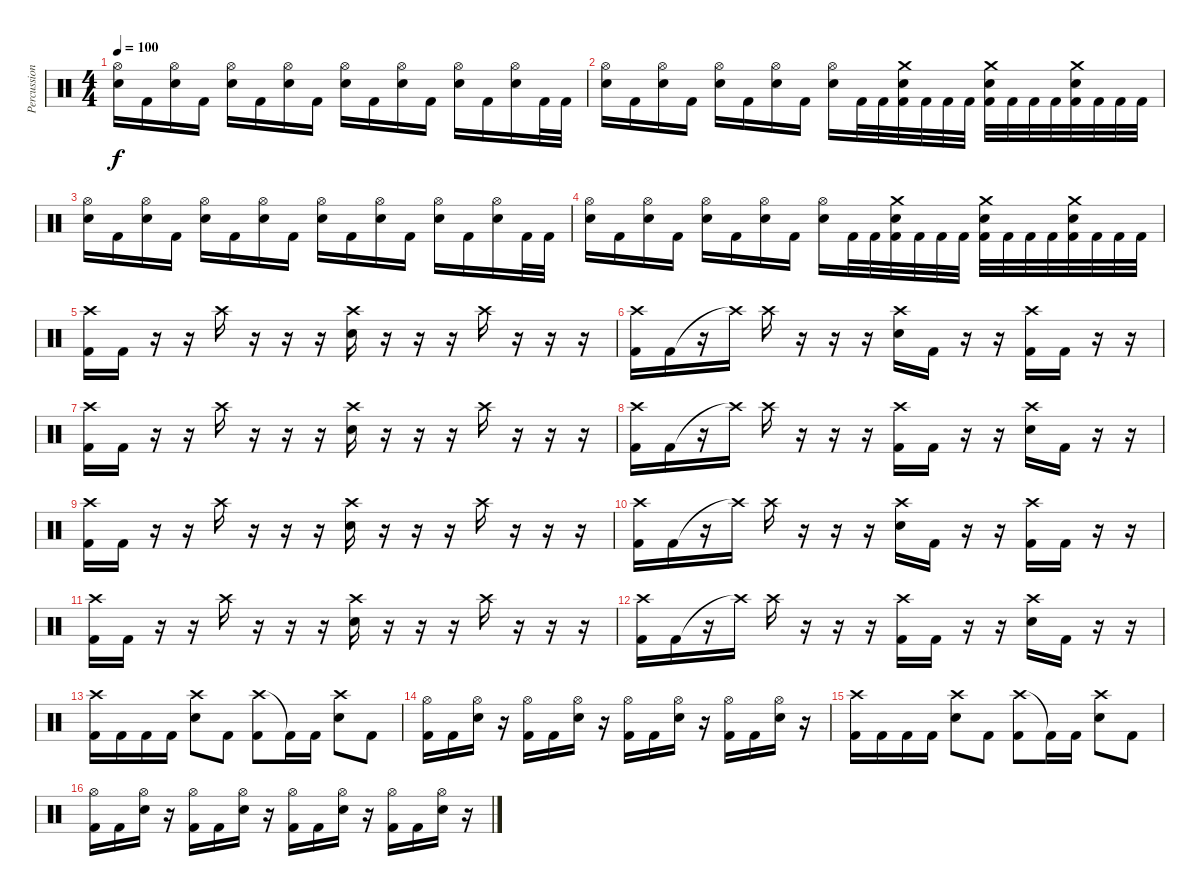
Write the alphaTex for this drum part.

\track ("Percussion" "Percussion") {instrument percussion}
\staff {score}
\articulation defaults
\ts (4 4)
\tempo 100
\clef neutral
\ks c
("Hi-Hat (open)" "Snare (hit) 2").16{dy f} "Kick (hit) 2".16 ("Hi-Hat (open)" "Snare (hit) 2").16 "Kick (hit) 2".16 ("Hi-Hat (open)" "Snare (hit) 2").16 "Kick (hit) 2".16 ("Hi-Hat (open)" "Snare (hit) 2").16 "Kick (hit) 2".16 ("Hi-Hat (open)" "Snare (hit) 2").16 "Kick (hit) 2".16 ("Hi-Hat (open)" "Snare (hit) 2").16 "Kick (hit) 2".16 ("Hi-Hat (open)" "Snare (hit) 2").16 "Kick (hit) 2".16 ("Hi-Hat (open)" "Snare (hit) 2").16 "Kick (hit) 2".32 "Kick (hit) 2".32 |
("Hi-Hat (open)" "Snare (hit) 2").16 "Kick (hit) 2".16 ("Hi-Hat (open)" "Snare (hit) 2").16 "Kick (hit) 2".16 ("Hi-Hat (open)" "Snare (hit) 2").16 "Kick (hit) 2".16 ("Hi-Hat (open)" "Snare (hit) 2").16 "Kick (hit) 2".16 ("Hi-Hat (open)" "Snare (hit) 2").16 "Kick (hit) 2".32 "Kick (hit) 2".32 ("Crash medium (hit)" "Snare (hit) 2" "Kick (hit) 2").32 "Kick (hit) 2".32 "Kick (hit) 2".32 "Kick (hit) 2".32 ("Crash medium (hit)" "Snare (hit) 2" "Kick (hit) 2").32 "Kick (hit) 2".32 "Kick (hit) 2".32 "Kick (hit) 2".32 ("Crash medium (hit)" "Snare (hit) 2" "Kick (hit) 2").32 "Kick (hit) 2".32 "Kick (hit) 2".32 "Kick (hit) 2".32 |
("Hi-Hat (open)" "Snare (hit) 2").16 "Kick (hit) 2".16 ("Hi-Hat (open)" "Snare (hit) 2").16 "Kick (hit) 2".16 ("Hi-Hat (open)" "Snare (hit) 2").16 "Kick (hit) 2".16 ("Hi-Hat (open)" "Snare (hit) 2").16 "Kick (hit) 2".16 ("Hi-Hat (open)" "Snare (hit) 2").16 "Kick (hit) 2".16 ("Hi-Hat (open)" "Snare (hit) 2").16 "Kick (hit) 2".16 ("Hi-Hat (open)" "Snare (hit) 2").16 "Kick (hit) 2".16 ("Hi-Hat (open)" "Snare (hit) 2").16 "Kick (hit) 2".32 "Kick (hit) 2".32 |
("Hi-Hat (open)" "Snare (hit) 2").16 "Kick (hit) 2".16 ("Hi-Hat (open)" "Snare (hit) 2").16 "Kick (hit) 2".16 ("Hi-Hat (open)" "Snare (hit) 2").16 "Kick (hit) 2".16 ("Hi-Hat (open)" "Snare (hit) 2").16 "Kick (hit) 2".16 ("Hi-Hat (open)" "Snare (hit) 2").16 "Kick (hit) 2".32 "Kick (hit) 2".32 ("Crash medium (hit)" "Snare (hit) 2" "Kick (hit) 2").32 "Kick (hit) 2".32 "Kick (hit) 2".32 "Kick (hit) 2".32 ("Crash medium (hit)" "Snare (hit) 2" "Kick (hit) 2").32 "Kick (hit) 2".32 "Kick (hit) 2".32 "Kick (hit) 2".32 ("Crash medium (hit)" "Snare (hit) 2" "Kick (hit) 2").32 "Kick (hit) 2".32 "Kick (hit) 2".32 "Kick (hit) 2".32 |
("Crash high (hit)" "Kick (hit) 2").16 "Kick (hit) 2".16 r.16 r.16 "Crash high (hit)".16 r.16 r.16 r.16 ("Crash high (hit)" "Snare (hit) 2").16 r.16 r.16 r.16 "Crash high (hit)".16 r.16 r.16 r.16 |
("Crash high (hit)" "Kick (hit) 2").16 "Kick (hit) 2".16 r.16 "Crash high (hit)"{t}.16 "Crash high (hit)".16 r.16 r.16 r.16 ("Crash high (hit)" "Snare (hit) 2").16 "Kick (hit) 2".16 r.16 r.16 ("Crash high (hit)" "Kick (hit) 2").16 "Kick (hit) 2".16 r.16 r.16 |
("Crash high (hit)" "Kick (hit) 2").16 "Kick (hit) 2".16 r.16 r.16 "Crash high (hit)".16 r.16 r.16 r.16 ("Crash high (hit)" "Snare (hit) 2").16 r.16 r.16 r.16 "Crash high (hit)".16 r.16 r.16 r.16 |
("Crash high (hit)" "Kick (hit) 2").16 "Kick (hit) 2".16 r.16 "Crash high (hit)"{t}.16 "Crash high (hit)".16 r.16 r.16 r.16 ("Crash high (hit)" "Kick (hit) 2").16 "Kick (hit) 2".16 r.16 r.16 ("Crash high (hit)" "Snare (hit) 2").16 "Kick (hit) 2".16 r.16 r.16 |
("Crash high (hit)" "Kick (hit) 2").16 "Kick (hit) 2".16 r.16 r.16 "Crash high (hit)".16 r.16 r.16 r.16 ("Crash high (hit)" "Snare (hit) 2").16 r.16 r.16 r.16 "Crash high (hit)".16 r.16 r.16 r.16 |
("Crash high (hit)" "Kick (hit) 2").16 "Kick (hit) 2".16 r.16 "Crash high (hit)"{t}.16 "Crash high (hit)".16 r.16 r.16 r.16 ("Crash high (hit)" "Snare (hit) 2").16 "Kick (hit) 2".16 r.16 r.16 ("Crash high (hit)" "Kick (hit) 2").16 "Kick (hit) 2".16 r.16 r.16 |
("Crash high (hit)" "Kick (hit) 2").16 "Kick (hit) 2".16 r.16 r.16 "Crash high (hit)".16 r.16 r.16 r.16 ("Crash high (hit)" "Snare (hit) 2").16 r.16 r.16 r.16 "Crash high (hit)".16 r.16 r.16 r.16 |
("Crash high (hit)" "Kick (hit) 2").16 "Kick (hit) 2".16 r.16 "Crash high (hit)"{t}.16 "Crash high (hit)".16 r.16 r.16 r.16 ("Crash high (hit)" "Kick (hit) 2").16 "Kick (hit) 2".16 r.16 r.16 ("Crash high (hit)" "Snare (hit) 2").16 "Kick (hit) 2".16 r.16 r.16 |
("Crash high (hit)" "Kick (hit) 2").16 "Kick (hit) 2".16 "Kick (hit) 2".16 "Kick (hit) 2".16 ("Crash high (hit)" "Snare (hit) 2").8 "Kick (hit) 2".8 ("Crash high (hit)" "Kick (hit) 2").8 "Kick (hit) 2"{t}.16 "Kick (hit) 2".16 ("Crash high (hit)" "Snare (hit) 2").8 "Kick (hit) 2".8 |
("Hi-Hat (open)" "Kick (hit) 2").16 "Kick (hit) 2".16 ("Hi-Hat (open)" "Snare (hit) 2").16 r.16 ("Hi-Hat (open)" "Kick (hit) 2").16 "Kick (hit) 2".16 ("Hi-Hat (open)" "Snare (hit) 2").16 r.16 ("Hi-Hat (open)" "Kick (hit) 2").16 "Kick (hit) 2".16 ("Hi-Hat (open)" "Snare (hit) 2").16 r.16 ("Hi-Hat (open)" "Kick (hit) 2").16 "Kick (hit) 2".16 ("Hi-Hat (open)" "Snare (hit) 2").16 r.16 |
("Crash high (hit)" "Kick (hit) 2").16 "Kick (hit) 2".16 "Kick (hit) 2".16 "Kick (hit) 2".16 ("Crash high (hit)" "Snare (hit) 2").8 "Kick (hit) 2".8 ("Crash high (hit)" "Kick (hit) 2").8 "Kick (hit) 2"{t}.16 "Kick (hit) 2".16 ("Crash high (hit)" "Snare (hit) 2").8 "Kick (hit) 2".8 |
("Hi-Hat (open)" "Kick (hit) 2").16 "Kick (hit) 2".16 ("Hi-Hat (open)" "Snare (hit) 2").16 r.16 ("Hi-Hat (open)" "Kick (hit) 2").16 "Kick (hit) 2".16 ("Hi-Hat (open)" "Snare (hit) 2").16 r.16 ("Hi-Hat (open)" "Kick (hit) 2").16 "Kick (hit) 2".16 ("Hi-Hat (open)" "Snare (hit) 2").16 r.16 ("Hi-Hat (open)" "Kick (hit) 2").16 "Kick (hit) 2".16 ("Hi-Hat (open)" "Snare (hit) 2").16 r.16
